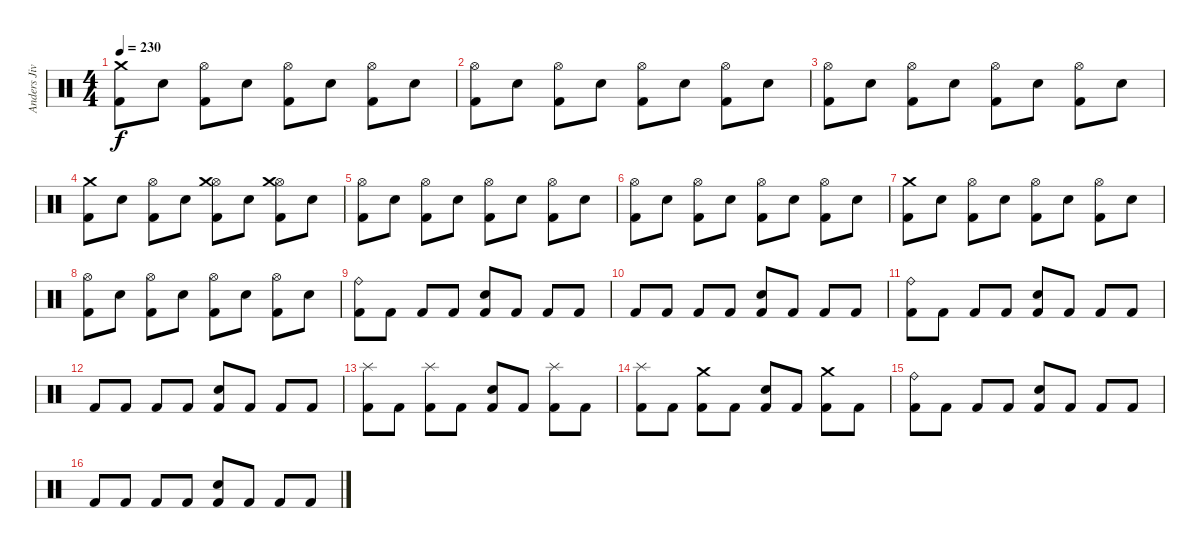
\track ("Anders Jivarp" "Anders Jiv") {instrument percussion}
\staff {score}
\articulation defaults
\ts (4 4)
\tempo 230
\clef neutral
\ks c
("Kick (hit) 2" "Crash medium (hit)").8{dy f} "Electric Snare (hit)".8 ("Kick (hit) 2" "Hi-Hat (open)").8 "Electric Snare (hit)".8 ("Kick (hit) 2" "Hi-Hat (open)").8 "Electric Snare (hit)".8 ("Kick (hit) 2" "Hi-Hat (open)").8 "Electric Snare (hit)".8 |
("Kick (hit) 2" "Hi-Hat (open)").8 "Electric Snare (hit)".8 ("Kick (hit) 2" "Hi-Hat (open)").8 "Electric Snare (hit)".8 ("Kick (hit) 2" "Hi-Hat (open)").8 "Electric Snare (hit)".8 ("Kick (hit) 2" "Hi-Hat (open)").8 "Electric Snare (hit)".8 |
("Kick (hit) 2" "Hi-Hat (open)").8 "Electric Snare (hit)".8 ("Kick (hit) 2" "Hi-Hat (open)").8 "Electric Snare (hit)".8 ("Kick (hit) 2" "Hi-Hat (open)").8 "Electric Snare (hit)".8 ("Kick (hit) 2" "Hi-Hat (open)").8 "Electric Snare (hit)".8 |
("Kick (hit) 2" "Crash medium (hit)").8 "Electric Snare (hit)".8 ("Kick (hit) 2" "Hi-Hat (open)").8 "Electric Snare (hit)".8 ("Kick (hit) 2" "Hi-Hat (open)" "Crash medium (hit)").8 "Electric Snare (hit)".8 ("Kick (hit) 2" "Hi-Hat (open)" "Crash medium (hit)").8 "Electric Snare (hit)".8 |
("Kick (hit) 2" "Hi-Hat (open)").8 "Electric Snare (hit)".8 ("Kick (hit) 2" "Hi-Hat (open)").8 "Electric Snare (hit)".8 ("Kick (hit) 2" "Hi-Hat (open)").8 "Electric Snare (hit)".8 ("Kick (hit) 2" "Hi-Hat (open)").8 "Electric Snare (hit)".8 |
("Kick (hit) 2" "Hi-Hat (open)").8 "Electric Snare (hit)".8 ("Kick (hit) 2" "Hi-Hat (open)").8 "Electric Snare (hit)".8 ("Kick (hit) 2" "Hi-Hat (open)").8 "Electric Snare (hit)".8 ("Kick (hit) 2" "Hi-Hat (open)").8 "Electric Snare (hit)".8 |
("Kick (hit) 2" "Crash medium (hit)").8 "Electric Snare (hit)".8 ("Kick (hit) 2" "Hi-Hat (open)").8 "Electric Snare (hit)".8 ("Kick (hit) 2" "Hi-Hat (open)").8 "Electric Snare (hit)".8 ("Kick (hit) 2" "Hi-Hat (open)").8 "Electric Snare (hit)".8 |
("Kick (hit) 2" "Hi-Hat (open)").8 "Electric Snare (hit)".8 ("Kick (hit) 2" "Hi-Hat (open)").8 "Electric Snare (hit)".8 ("Kick (hit) 2" "Hi-Hat (open)").8 "Electric Snare (hit)".8 ("Kick (hit) 2" "Hi-Hat (open)").8 "Electric Snare (hit)".8 |
("Kick (hit) 2" "Ride (bell)").8 "Kick (hit) 2".8 "Kick (hit) 2".8 "Kick (hit) 2".8 ("Kick (hit) 2" "Electric Snare (hit)").8 "Kick (hit) 2".8 "Kick (hit) 2".8 "Kick (hit) 2".8 |
"Kick (hit) 2".8 "Kick (hit) 2".8 "Kick (hit) 2".8 "Kick (hit) 2".8 ("Kick (hit) 2" "Electric Snare (hit)").8 "Kick (hit) 2".8 "Kick (hit) 2".8 "Kick (hit) 2".8 |
("Kick (hit) 2" "Ride (bell)").8 "Kick (hit) 2".8 "Kick (hit) 2".8 "Kick (hit) 2".8 ("Kick (hit) 2" "Electric Snare (hit)").8 "Kick (hit) 2".8 "Kick (hit) 2".8 "Kick (hit) 2".8 |
"Kick (hit) 2".8 "Kick (hit) 2".8 "Kick (hit) 2".8 "Kick (hit) 2".8 ("Kick (hit) 2" "Electric Snare (hit)").8 "Kick (hit) 2".8 "Kick (hit) 2".8 "Kick (hit) 2".8 |
("Kick (hit) 2" "Splash (hit)").8 "Kick (hit) 2".8 ("Kick (hit) 2" "Splash (hit)").8 "Kick (hit) 2".8 ("Kick (hit) 2" "Electric Snare (hit)").8 "Kick (hit) 2".8 ("Kick (hit) 2" "Splash (hit)").8 "Kick (hit) 2".8 |
("Kick (hit) 2" "Splash (hit)").8 "Kick (hit) 2".8 ("Kick (hit) 2" "Crash medium (hit)").8 "Kick (hit) 2".8 ("Kick (hit) 2" "Electric Snare (hit)").8 "Kick (hit) 2".8 ("Kick (hit) 2" "Crash medium (hit)").8 "Kick (hit) 2".8 |
("Kick (hit) 2" "Ride (bell)").8 "Kick (hit) 2".8 "Kick (hit) 2".8 "Kick (hit) 2".8 ("Kick (hit) 2" "Electric Snare (hit)").8 "Kick (hit) 2".8 "Kick (hit) 2".8 "Kick (hit) 2".8 |
"Kick (hit) 2".8 "Kick (hit) 2".8 "Kick (hit) 2".8 "Kick (hit) 2".8 ("Kick (hit) 2" "Electric Snare (hit)").8 "Kick (hit) 2".8 "Kick (hit) 2".8 "Kick (hit) 2".8
